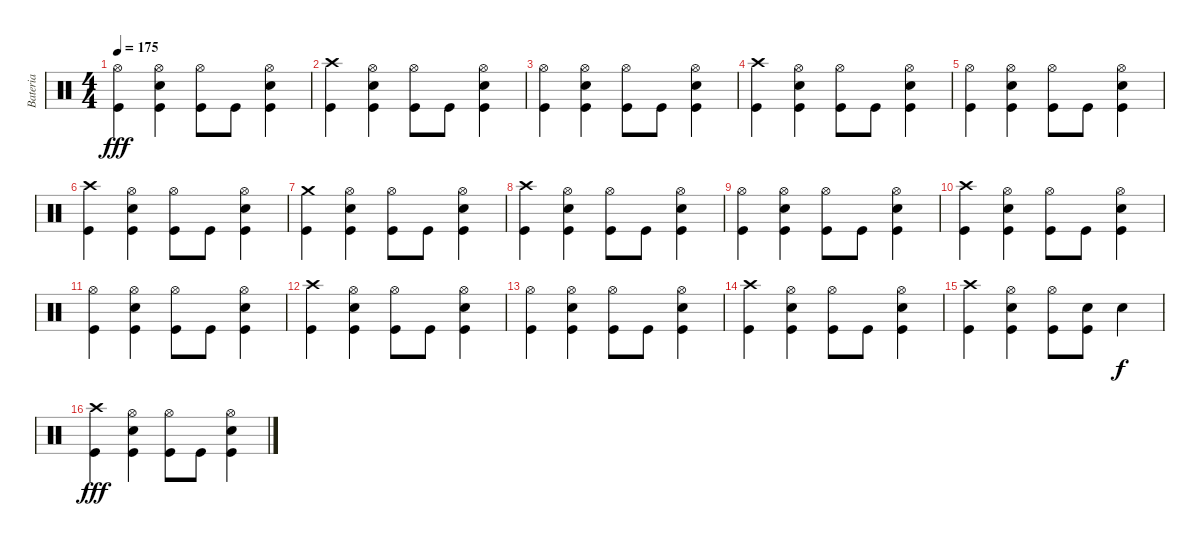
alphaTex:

\track ("Bateria" "Bateria") {instrument percussion}
\staff {score}
\articulation defaults
\ts (4 4)
\tempo 175
\clef neutral
\ks c
("Hi-Hat (open)" "Kick (hit)").4{dy fff} ("Hi-Hat (open)" "Electric Snare (hit)" "Kick (hit)").4 ("Hi-Hat (open)" "Kick (hit)").8 "Kick (hit)".8 ("Hi-Hat (open)" "Electric Snare (hit)" "Kick (hit)").4 |
("Crash high (hit)" "Kick (hit)").4 ("Hi-Hat (open)" "Electric Snare (hit)" "Kick (hit)").4 ("Hi-Hat (open)" "Kick (hit)").8 "Kick (hit)".8 ("Hi-Hat (open)" "Electric Snare (hit)" "Kick (hit)").4 |
("Hi-Hat (open)" "Kick (hit)").4 ("Hi-Hat (open)" "Electric Snare (hit)" "Kick (hit)").4 ("Hi-Hat (open)" "Kick (hit)").8 "Kick (hit)".8 ("Hi-Hat (open)" "Electric Snare (hit)" "Kick (hit)").4 |
("Crash high (hit)" "Kick (hit)").4 ("Hi-Hat (open)" "Electric Snare (hit)" "Kick (hit)").4 ("Hi-Hat (open)" "Kick (hit)").8 "Kick (hit)".8 ("Hi-Hat (open)" "Electric Snare (hit)" "Kick (hit)").4 |
("Hi-Hat (open)" "Kick (hit)").4 ("Hi-Hat (open)" "Electric Snare (hit)" "Kick (hit)").4 ("Hi-Hat (open)" "Kick (hit)").8 "Kick (hit)".8 ("Hi-Hat (open)" "Electric Snare (hit)" "Kick (hit)").4 |
("Crash high (hit)" "Kick (hit)").4 ("Hi-Hat (open)" "Electric Snare (hit)" "Kick (hit)").4 ("Hi-Hat (open)" "Kick (hit)").8 "Kick (hit)".8 ("Hi-Hat (open)" "Electric Snare (hit)" "Kick (hit)").4 |
("Crash medium (hit)" "Kick (hit)").4 ("Hi-Hat (open)" "Electric Snare (hit)" "Kick (hit)").4 ("Hi-Hat (open)" "Kick (hit)").8 "Kick (hit)".8 ("Hi-Hat (open)" "Electric Snare (hit)" "Kick (hit)").4 |
("Crash high (hit)" "Kick (hit)").4 ("Hi-Hat (open)" "Electric Snare (hit)" "Kick (hit)").4 ("Hi-Hat (open)" "Kick (hit)").8 "Kick (hit)".8 ("Hi-Hat (open)" "Electric Snare (hit)" "Kick (hit)").4 |
("Hi-Hat (open)" "Kick (hit)").4 ("Hi-Hat (open)" "Electric Snare (hit)" "Kick (hit)").4 ("Hi-Hat (open)" "Kick (hit)").8 "Kick (hit)".8 ("Hi-Hat (open)" "Electric Snare (hit)" "Kick (hit)").4 |
("Crash high (hit)" "Kick (hit)").4 ("Hi-Hat (open)" "Electric Snare (hit)" "Kick (hit)").4 ("Hi-Hat (open)" "Kick (hit)").8 "Kick (hit)".8 ("Hi-Hat (open)" "Electric Snare (hit)" "Kick (hit)").4 |
("Hi-Hat (open)" "Kick (hit)").4 ("Hi-Hat (open)" "Electric Snare (hit)" "Kick (hit)").4 ("Hi-Hat (open)" "Kick (hit)").8 "Kick (hit)".8 ("Hi-Hat (open)" "Electric Snare (hit)" "Kick (hit)").4 |
("Crash high (hit)" "Kick (hit)").4 ("Hi-Hat (open)" "Electric Snare (hit)" "Kick (hit)").4 ("Hi-Hat (open)" "Kick (hit)").8 "Kick (hit)".8 ("Hi-Hat (open)" "Electric Snare (hit)" "Kick (hit)").4 |
("Hi-Hat (open)" "Kick (hit)").4 ("Hi-Hat (open)" "Electric Snare (hit)" "Kick (hit)").4 ("Hi-Hat (open)" "Kick (hit)").8 "Kick (hit)".8 ("Hi-Hat (open)" "Electric Snare (hit)" "Kick (hit)").4 |
("Crash high (hit)" "Kick (hit)").4 ("Hi-Hat (open)" "Electric Snare (hit)" "Kick (hit)").4 ("Hi-Hat (open)" "Kick (hit)").8 "Kick (hit)".8 ("Hi-Hat (open)" "Electric Snare (hit)" "Kick (hit)").4 |
("Crash high (hit)" "Kick (hit)").4 ("Hi-Hat (open)" "Electric Snare (hit)" "Kick (hit)").4 ("Hi-Hat (open)" "Kick (hit)").8 ("Electric Snare (hit)" "Kick (hit)").8 "Electric Snare (hit)".4{dy f} |
("Crash high (hit)" "Kick (hit)").4{dy fff} ("Hi-Hat (open)" "Electric Snare (hit)" "Kick (hit)").4 ("Hi-Hat (open)" "Kick (hit)").8 "Kick (hit)".8 ("Hi-Hat (open)" "Electric Snare (hit)" "Kick (hit)").4
